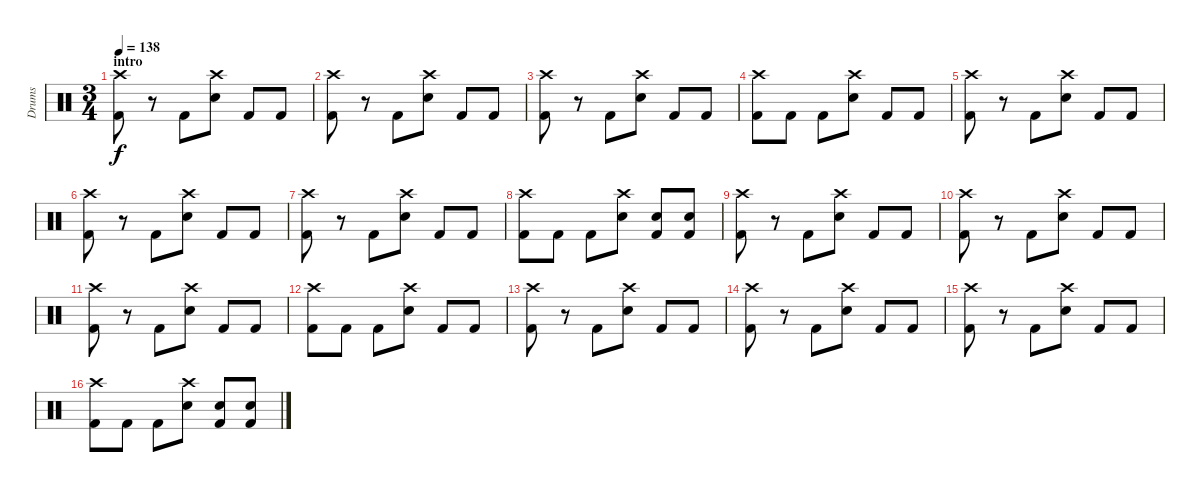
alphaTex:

\track ("Drums" "Drums") {instrument percussion}
\staff {score}
\articulation defaults
\ts (3 4)
\section ("" "intro")
\tempo 138
\clef neutral
\ks c
("Crash high (hit)" "Kick (hit) 2").8{dy f} r.8 "Kick (hit) 2".8 ("Crash high (hit)" "Snare (hit) 2").8 "Kick (hit) 2".8 "Kick (hit) 2".8 |
("Crash high (hit)" "Kick (hit) 2").8 r.8 "Kick (hit) 2".8 ("Crash high (hit)" "Snare (hit) 2").8 "Kick (hit) 2".8 "Kick (hit) 2".8 |
("Crash high (hit)" "Kick (hit) 2").8 r.8 "Kick (hit) 2".8 ("Crash high (hit)" "Snare (hit) 2").8 "Kick (hit) 2".8 "Kick (hit) 2".8 |
("Crash high (hit)" "Kick (hit) 2").8 "Kick (hit) 2".8 "Kick (hit) 2".8 ("Crash high (hit)" "Snare (hit) 2").8 "Kick (hit) 2".8 "Kick (hit) 2".8 |
("Crash high (hit)" "Kick (hit) 2").8 r.8 "Kick (hit) 2".8 ("Crash high (hit)" "Snare (hit) 2").8 "Kick (hit) 2".8 "Kick (hit) 2".8 |
("Crash high (hit)" "Kick (hit) 2").8 r.8 "Kick (hit) 2".8 ("Crash high (hit)" "Snare (hit) 2").8 "Kick (hit) 2".8 "Kick (hit) 2".8 |
("Crash high (hit)" "Kick (hit) 2").8 r.8 "Kick (hit) 2".8 ("Crash high (hit)" "Snare (hit) 2").8 "Kick (hit) 2".8 "Kick (hit) 2".8 |
("Crash high (hit)" "Kick (hit) 2").8 "Kick (hit) 2".8 "Kick (hit) 2".8 ("Crash high (hit)" "Snare (hit) 2").8 ("Snare (hit) 2" "Kick (hit) 2").8 ("Snare (hit) 2" "Kick (hit) 2").8 |
("Crash high (hit)" "Kick (hit) 2").8 r.8 "Kick (hit) 2".8 ("Crash high (hit)" "Snare (hit) 2").8 "Kick (hit) 2".8 "Kick (hit) 2".8 |
("Crash high (hit)" "Kick (hit) 2").8 r.8 "Kick (hit) 2".8 ("Crash high (hit)" "Snare (hit) 2").8 "Kick (hit) 2".8 "Kick (hit) 2".8 |
("Crash high (hit)" "Kick (hit) 2").8 r.8 "Kick (hit) 2".8 ("Crash high (hit)" "Snare (hit) 2").8 "Kick (hit) 2".8 "Kick (hit) 2".8 |
("Crash high (hit)" "Kick (hit) 2").8 "Kick (hit) 2".8 "Kick (hit) 2".8 ("Crash high (hit)" "Snare (hit) 2").8 "Kick (hit) 2".8 "Kick (hit) 2".8 |
("Crash high (hit)" "Kick (hit) 2").8 r.8 "Kick (hit) 2".8 ("Crash high (hit)" "Snare (hit) 2").8 "Kick (hit) 2".8 "Kick (hit) 2".8 |
("Crash high (hit)" "Kick (hit) 2").8 r.8 "Kick (hit) 2".8 ("Crash high (hit)" "Snare (hit) 2").8 "Kick (hit) 2".8 "Kick (hit) 2".8 |
("Crash high (hit)" "Kick (hit) 2").8 r.8 "Kick (hit) 2".8 ("Crash high (hit)" "Snare (hit) 2").8 "Kick (hit) 2".8 "Kick (hit) 2".8 |
("Crash high (hit)" "Kick (hit) 2").8 "Kick (hit) 2".8 "Kick (hit) 2".8 ("Crash high (hit)" "Snare (hit) 2").8 ("Snare (hit) 2" "Kick (hit) 2").8 ("Snare (hit) 2" "Kick (hit) 2").8
